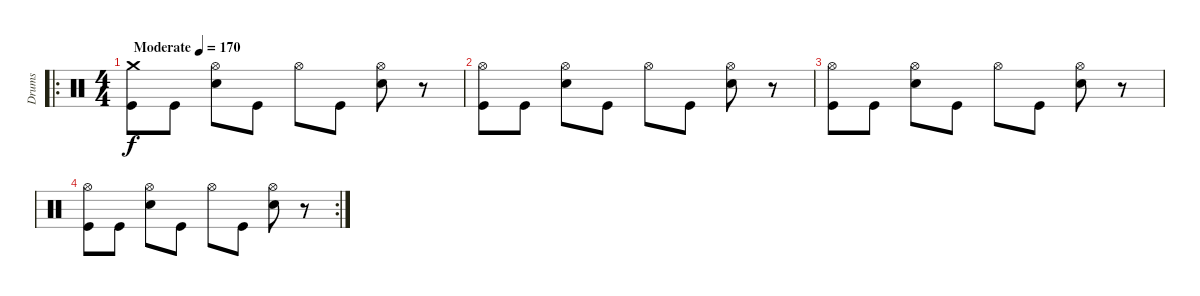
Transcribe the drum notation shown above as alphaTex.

\track ("Drums" "Drums") {instrument percussion}
\staff {score}
\articulation defaults
\ro
\ts (4 4)
\tempo (170 "Moderate")
\clef neutral
\ks c
("Crash medium (hit)" "Kick (hit)").8{dy f} "Kick (hit)".8 ("Hi-Hat (open)" "Snare (hit) 2").8 "Kick (hit)".8 "Hi-Hat (open)".8 "Kick (hit)".8 ("Hi-Hat (open)" "Snare (hit) 2").8 r.8 |
("Hi-Hat (open)" "Kick (hit)").8 "Kick (hit)".8 ("Hi-Hat (open)" "Snare (hit) 2").8 "Kick (hit)".8 "Hi-Hat (open)".8 "Kick (hit)".8 ("Hi-Hat (open)" "Snare (hit) 2").8 r.8 |
("Hi-Hat (open)" "Kick (hit)").8 "Kick (hit)".8 ("Hi-Hat (open)" "Snare (hit) 2").8 "Kick (hit)".8 "Hi-Hat (open)".8 "Kick (hit)".8 ("Hi-Hat (open)" "Snare (hit) 2").8 r.8 |
\rc 2
("Hi-Hat (open)" "Kick (hit)").8 "Kick (hit)".8 ("Hi-Hat (open)" "Snare (hit) 2").8 "Kick (hit)".8 "Hi-Hat (open)".8 "Kick (hit)".8 ("Hi-Hat (open)" "Snare (hit) 2").8 r.8
